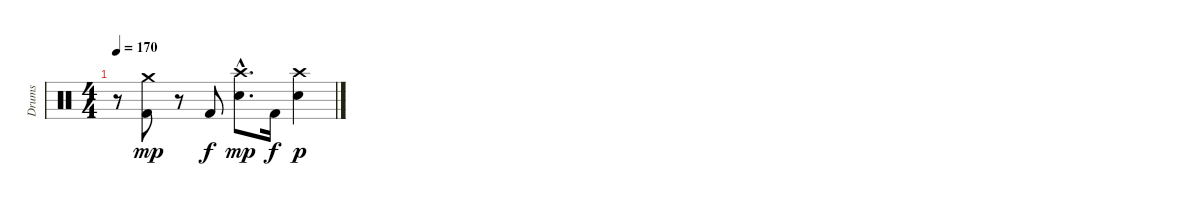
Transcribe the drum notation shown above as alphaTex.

\track ("Drums" "Drums") {instrument percussion}
\staff {score}
\articulation defaults
\ts (4 4)
\tempo 170
\clef neutral
\ks c
r.8{dy f} ("Crash medium (hit)" "Kick (hit) 2").8{dy mp} r.8 "Kick (hit) 2".8{dy f} ("Crash high (hit)"{hac} "Electric Snare (hit)"{hac}).8{d dy mp} "Kick (hit) 2".16{dy f} ("Crash high (hit)" "Electric Snare (hit)").4{dy p}
